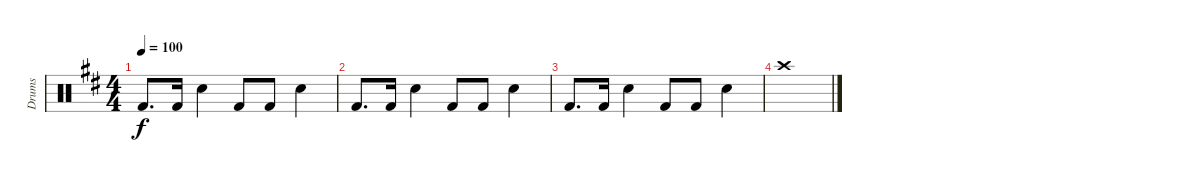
\track ("Drums" "Drums") {instrument percussion}
\staff {score}
\articulation defaults
\ts (4 4)
\tempo 100
\clef neutral
\ks d "Kick (hit) 2".8{d dy f} "Kick (hit) 2".16 "Snare (hit) 2".4 "Kick (hit) 2".8 "Kick (hit) 2".8 "Snare (hit) 2".4
|
"Kick (hit) 2".8{d} "Kick (hit) 2".16 "Snare (hit) 2".4 "Kick (hit) 2".8 "Kick (hit) 2".8 "Snare (hit) 2".4 |
"Kick (hit) 2".8{d} "Kick (hit) 2".16 "Snare (hit) 2".4 "Kick (hit) 2".8 "Kick (hit) 2".8 "Snare (hit) 2".4 |
"Crash high (hit)".1
